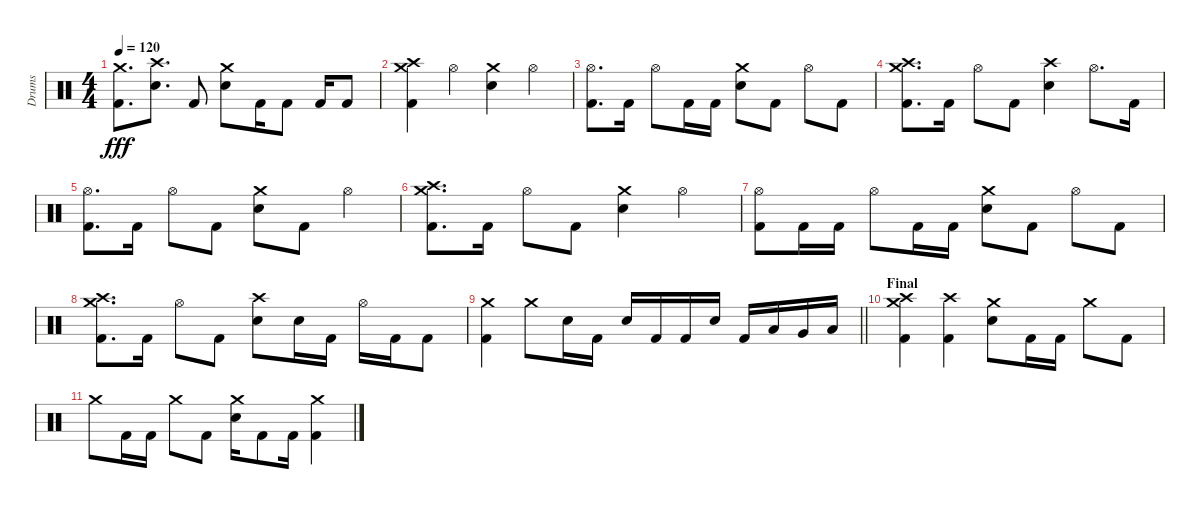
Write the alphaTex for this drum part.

\track ("Drums" "Drums") {instrument percussion}
\staff {score}
\articulation defaults
\ts (4 4)
\tempo 120
\clef neutral
\ks c
("Crash medium (hit)" "Kick (hit) 2").8{d dy fff} ("Crash high (hit)" "Electric Snare (hit)").8{d} "Kick (hit) 2".8 ("Crash medium (hit)" "Electric Snare (hit)").8 "Kick (hit) 2".16 "Kick (hit) 2".8 "Kick (hit) 2".16 "Kick (hit) 2".8 |
("Crash medium (hit)" "Crash high (hit)" "Kick (hit) 2").4 "Hi-Hat (open)".4 ("Crash medium (hit)" "Electric Snare (hit)").4 "Hi-Hat (open)".4 |
("Hi-Hat (open)" "Kick (hit) 2").8{d} "Kick (hit) 2".16 "Hi-Hat (open)".8 "Kick (hit) 2".16 "Kick (hit) 2".16 ("Crash medium (hit)" "Electric Snare (hit)").8 "Kick (hit) 2".8 "Hi-Hat (open)".8 "Kick (hit) 2".8 |
("Crash medium (hit)" "Crash high (hit)" "Kick (hit) 2").8{d} "Kick (hit) 2".16 "Hi-Hat (open)".8 "Kick (hit) 2".8 ("Crash high (hit)" "Electric Snare (hit)").4 "Hi-Hat (open)".8{d} "Kick (hit) 2".16 |
("Hi-Hat (open)" "Kick (hit) 2").8{d} "Kick (hit) 2".16 "Hi-Hat (open)".8 "Kick (hit) 2".8 ("Crash medium (hit)" "Electric Snare (hit)").8 "Kick (hit) 2".8 "Hi-Hat (open)".4 |
("Crash medium (hit)" "Crash high (hit)" "Kick (hit) 2").8{d} "Kick (hit) 2".16 "Hi-Hat (open)".8 "Kick (hit) 2".8 ("Crash medium (hit)" "Electric Snare (hit)").4 "Hi-Hat (open)".4 |
("Hi-Hat (open)" "Kick (hit) 2").8 "Kick (hit) 2".16 "Kick (hit) 2".16 "Hi-Hat (open)".8 "Kick (hit) 2".16 "Kick (hit) 2".16 ("Crash medium (hit)" "Electric Snare (hit)").8 "Kick (hit) 2".8 "Hi-Hat (open)".8 "Kick (hit) 2".8 |
("Crash medium (hit)" "Crash high (hit)" "Kick (hit) 2").8{d} "Kick (hit) 2".16 "Hi-Hat (open)".8 "Kick (hit) 2".8 ("Crash high (hit)" "Electric Snare (hit)").8 "Electric Snare (hit)".16 "Kick (hit) 2".16 "Hi-Hat (open)".16 "Kick (hit) 2".16 "Kick (hit) 2".8 |
\barLineRight lightlight
("Crash medium (hit)" "Kick (hit) 2").4 "Crash medium (hit)".8 "Electric Snare (hit)".16 "Kick (hit) 2".16 "Electric Snare (hit)".16 "Kick (hit) 2".16 "Kick (hit) 2".16 "Electric Snare (hit)".16 "Kick (hit) 2".16 "Low Tom (hit)".16 "Very Low Tom (hit)".16 "Low Floor Tom (hit)".16 |
\section ("" "Final")
("Crash medium (hit)" "Crash high (hit)" "Kick (hit) 2").4 ("Crash high (hit)" "Kick (hit) 2").4 ("Crash medium (hit)" "Electric Snare (hit)").8 "Kick (hit) 2".16 "Kick (hit) 2".16 "Crash medium (hit)".8 "Kick (hit) 2".8 |
"Crash medium (hit)".8 "Kick (hit) 2".16 "Kick (hit) 2".16 "Crash medium (hit)".8 "Kick (hit) 2".8 ("Crash medium (hit)" "Electric Snare (hit)").16 "Kick (hit) 2".8 "Kick (hit) 2".16 ("Crash medium (hit)" "Kick (hit) 2").4
